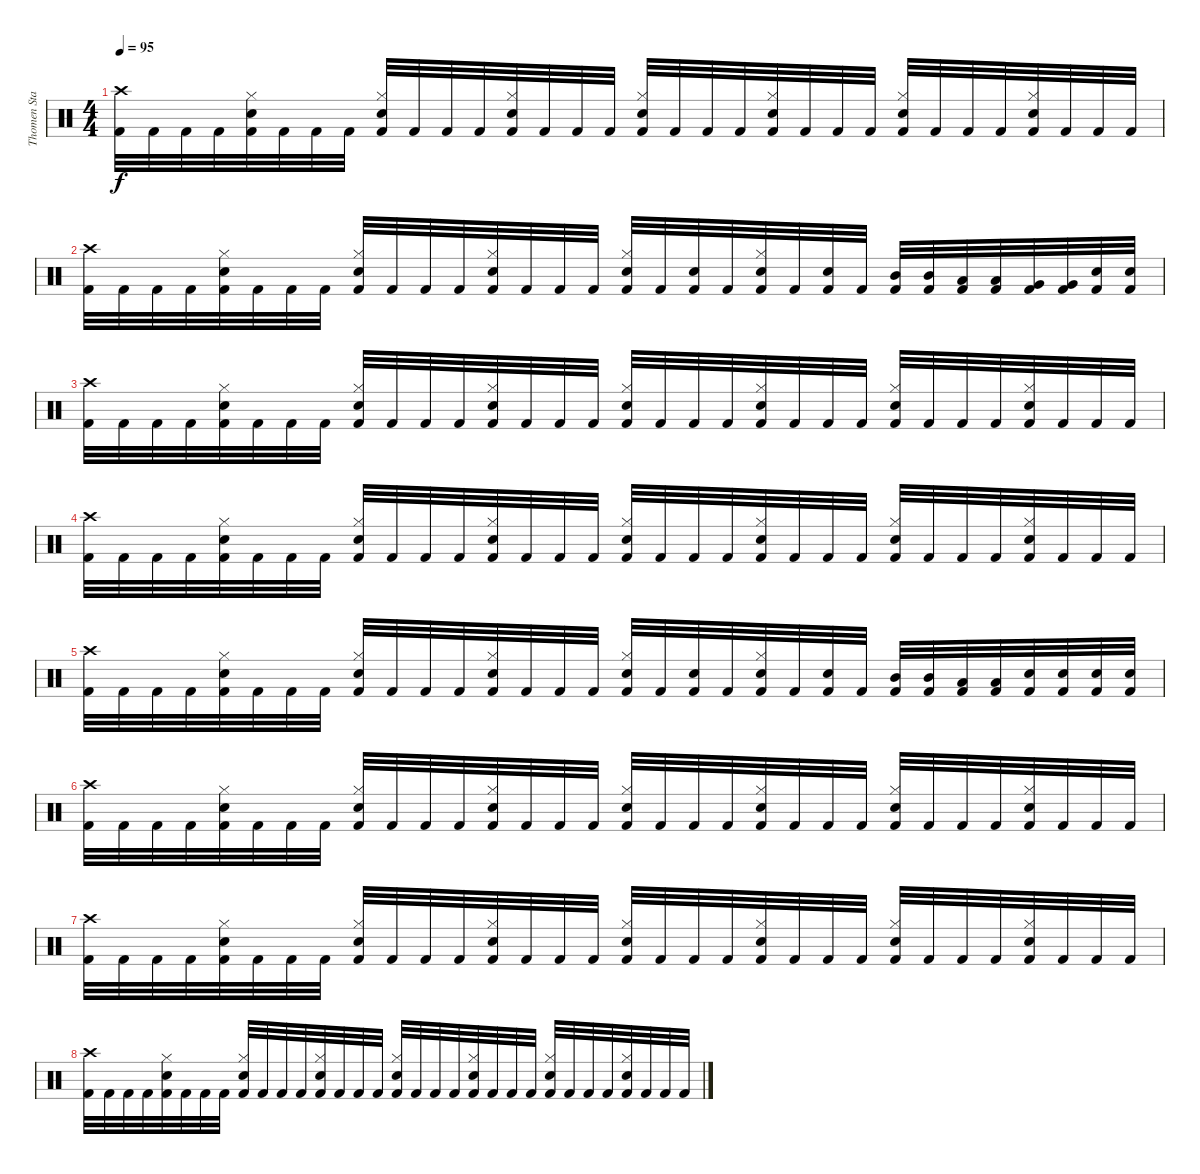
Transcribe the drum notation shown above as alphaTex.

\track ("Thomen Stauch" "Thomen Sta") {instrument percussion}
\staff {score}
\articulation defaults
\ts (4 4)
\tempo 95
\clef neutral
\ks c
("Crash high (hit)" "Kick (hit) 2").32{dy f} "Kick (hit) 2".32 "Kick (hit) 2".32 "Kick (hit) 2".32 ("Hi-Hat (closed)" "Snare (hit) 2" "Kick (hit) 2").32 "Kick (hit) 2".32 "Kick (hit) 2".32 "Kick (hit) 2".32 ("Hi-Hat (closed)" "Snare (hit) 2" "Kick (hit) 2").32 "Kick (hit) 2".32 "Kick (hit) 2".32 "Kick (hit) 2".32 ("Hi-Hat (closed)" "Snare (hit) 2" "Kick (hit) 2").32 "Kick (hit) 2".32 "Kick (hit) 2".32 "Kick (hit) 2".32 ("Hi-Hat (closed)" "Snare (hit) 2" "Kick (hit) 2").32 "Kick (hit) 2".32 "Kick (hit) 2".32 "Kick (hit) 2".32 ("Hi-Hat (closed)" "Snare (hit) 2" "Kick (hit) 2").32 "Kick (hit) 2".32 "Kick (hit) 2".32 "Kick (hit) 2".32 ("Hi-Hat (closed)" "Snare (hit) 2" "Kick (hit) 2").32 "Kick (hit) 2".32 "Kick (hit) 2".32 "Kick (hit) 2".32 ("Hi-Hat (closed)" "Snare (hit) 2" "Kick (hit) 2").32 "Kick (hit) 2".32 "Kick (hit) 2".32 "Kick (hit) 2".32 |
("Crash high (hit)" "Kick (hit) 2").32 "Kick (hit) 2".32 "Kick (hit) 2".32 "Kick (hit) 2".32 ("Hi-Hat (closed)" "Snare (hit) 2" "Kick (hit) 2").32 "Kick (hit) 2".32 "Kick (hit) 2".32 "Kick (hit) 2".32 ("Hi-Hat (closed)" "Snare (hit) 2" "Kick (hit) 2").32 "Kick (hit) 2".32 "Kick (hit) 2".32 "Kick (hit) 2".32 ("Hi-Hat (closed)" "Snare (hit) 2" "Kick (hit) 2").32 "Kick (hit) 2".32 "Kick (hit) 2".32 "Kick (hit) 2".32 ("Hi-Hat (closed)" "Snare (hit) 2" "Kick (hit) 2").32 "Kick (hit) 2".32 ("Snare (hit) 2" "Kick (hit) 2").32 "Kick (hit) 2".32 ("Hi-Hat (closed)" "Snare (hit) 2" "Kick (hit) 2").32 "Kick (hit) 2".32 ("Snare (hit) 2" "Kick (hit) 2").32 "Kick (hit) 2".32 ("Mid Tom (hit)" "Kick (hit) 2").32 ("Mid Tom (hit)" "Kick (hit) 2").32 ("Low Tom (hit)" "Kick (hit) 2").32 ("Low Tom (hit)" "Kick (hit) 2").32 ("Very Low Tom (hit)" "Kick (hit) 2").32 ("Very Low Tom (hit)" "Kick (hit) 2").32 ("Snare (hit) 2" "Kick (hit) 2").32 ("Snare (hit) 2" "Kick (hit) 2").32 |
("Crash high (hit)" "Kick (hit) 2").32 "Kick (hit) 2".32 "Kick (hit) 2".32 "Kick (hit) 2".32 ("Hi-Hat (closed)" "Snare (hit) 2" "Kick (hit) 2").32 "Kick (hit) 2".32 "Kick (hit) 2".32 "Kick (hit) 2".32 ("Hi-Hat (closed)" "Snare (hit) 2" "Kick (hit) 2").32 "Kick (hit) 2".32 "Kick (hit) 2".32 "Kick (hit) 2".32 ("Hi-Hat (closed)" "Snare (hit) 2" "Kick (hit) 2").32 "Kick (hit) 2".32 "Kick (hit) 2".32 "Kick (hit) 2".32 ("Hi-Hat (closed)" "Snare (hit) 2" "Kick (hit) 2").32 "Kick (hit) 2".32 "Kick (hit) 2".32 "Kick (hit) 2".32 ("Hi-Hat (closed)" "Snare (hit) 2" "Kick (hit) 2").32 "Kick (hit) 2".32 "Kick (hit) 2".32 "Kick (hit) 2".32 ("Hi-Hat (closed)" "Snare (hit) 2" "Kick (hit) 2").32 "Kick (hit) 2".32 "Kick (hit) 2".32 "Kick (hit) 2".32 ("Hi-Hat (closed)" "Snare (hit) 2" "Kick (hit) 2").32 "Kick (hit) 2".32 "Kick (hit) 2".32 "Kick (hit) 2".32 |
("Crash high (hit)" "Kick (hit) 2").32 "Kick (hit) 2".32 "Kick (hit) 2".32 "Kick (hit) 2".32 ("Hi-Hat (closed)" "Snare (hit) 2" "Kick (hit) 2").32 "Kick (hit) 2".32 "Kick (hit) 2".32 "Kick (hit) 2".32 ("Hi-Hat (closed)" "Snare (hit) 2" "Kick (hit) 2").32 "Kick (hit) 2".32 "Kick (hit) 2".32 "Kick (hit) 2".32 ("Hi-Hat (closed)" "Snare (hit) 2" "Kick (hit) 2").32 "Kick (hit) 2".32 "Kick (hit) 2".32 "Kick (hit) 2".32 ("Hi-Hat (closed)" "Snare (hit) 2" "Kick (hit) 2").32 "Kick (hit) 2".32 "Kick (hit) 2".32 "Kick (hit) 2".32 ("Hi-Hat (closed)" "Snare (hit) 2" "Kick (hit) 2").32 "Kick (hit) 2".32 "Kick (hit) 2".32 "Kick (hit) 2".32 ("Hi-Hat (closed)" "Snare (hit) 2" "Kick (hit) 2").32 "Kick (hit) 2".32 "Kick (hit) 2".32 "Kick (hit) 2".32 ("Hi-Hat (closed)" "Snare (hit) 2" "Kick (hit) 2").32 "Kick (hit) 2".32 "Kick (hit) 2".32 "Kick (hit) 2".32 |
("Crash high (hit)" "Kick (hit) 2").32 "Kick (hit) 2".32 "Kick (hit) 2".32 "Kick (hit) 2".32 ("Hi-Hat (closed)" "Snare (hit) 2" "Kick (hit) 2").32 "Kick (hit) 2".32 "Kick (hit) 2".32 "Kick (hit) 2".32 ("Hi-Hat (closed)" "Snare (hit) 2" "Kick (hit) 2").32 "Kick (hit) 2".32 "Kick (hit) 2".32 "Kick (hit) 2".32 ("Hi-Hat (closed)" "Snare (hit) 2" "Kick (hit) 2").32 "Kick (hit) 2".32 "Kick (hit) 2".32 "Kick (hit) 2".32 ("Hi-Hat (closed)" "Snare (hit) 2" "Kick (hit) 2").32 "Kick (hit) 2".32 ("Snare (hit) 2" "Kick (hit) 2").32 "Kick (hit) 2".32 ("Hi-Hat (closed)" "Snare (hit) 2" "Kick (hit) 2").32 "Kick (hit) 2".32 ("Snare (hit) 2" "Kick (hit) 2").32 "Kick (hit) 2".32 ("Mid Tom (hit)" "Kick (hit) 2").32 ("Mid Tom (hit)" "Kick (hit) 2").32 ("Low Tom (hit)" "Kick (hit) 2").32 ("Low Tom (hit)" "Kick (hit) 2").32 ("Snare (hit) 2" "Kick (hit) 2").32 ("Snare (hit) 2" "Kick (hit) 2").32 ("Snare (hit) 2" "Kick (hit) 2").32 ("Snare (hit) 2" "Kick (hit) 2").32 |
("Crash high (hit)" "Kick (hit) 2").32 "Kick (hit) 2".32 "Kick (hit) 2".32 "Kick (hit) 2".32 ("Hi-Hat (closed)" "Snare (hit) 2" "Kick (hit) 2").32 "Kick (hit) 2".32 "Kick (hit) 2".32 "Kick (hit) 2".32 ("Hi-Hat (closed)" "Snare (hit) 2" "Kick (hit) 2").32 "Kick (hit) 2".32 "Kick (hit) 2".32 "Kick (hit) 2".32 ("Hi-Hat (closed)" "Snare (hit) 2" "Kick (hit) 2").32 "Kick (hit) 2".32 "Kick (hit) 2".32 "Kick (hit) 2".32 ("Hi-Hat (closed)" "Snare (hit) 2" "Kick (hit) 2").32 "Kick (hit) 2".32 "Kick (hit) 2".32 "Kick (hit) 2".32 ("Hi-Hat (closed)" "Snare (hit) 2" "Kick (hit) 2").32 "Kick (hit) 2".32 "Kick (hit) 2".32 "Kick (hit) 2".32 ("Hi-Hat (closed)" "Snare (hit) 2" "Kick (hit) 2").32 "Kick (hit) 2".32 "Kick (hit) 2".32 "Kick (hit) 2".32 ("Hi-Hat (closed)" "Snare (hit) 2" "Kick (hit) 2").32 "Kick (hit) 2".32 "Kick (hit) 2".32 "Kick (hit) 2".32 |
("Crash high (hit)" "Kick (hit) 2").32 "Kick (hit) 2".32 "Kick (hit) 2".32 "Kick (hit) 2".32 ("Hi-Hat (closed)" "Snare (hit) 2" "Kick (hit) 2").32 "Kick (hit) 2".32 "Kick (hit) 2".32 "Kick (hit) 2".32 ("Hi-Hat (closed)" "Snare (hit) 2" "Kick (hit) 2").32 "Kick (hit) 2".32 "Kick (hit) 2".32 "Kick (hit) 2".32 ("Hi-Hat (closed)" "Snare (hit) 2" "Kick (hit) 2").32 "Kick (hit) 2".32 "Kick (hit) 2".32 "Kick (hit) 2".32 ("Hi-Hat (closed)" "Snare (hit) 2" "Kick (hit) 2").32 "Kick (hit) 2".32 "Kick (hit) 2".32 "Kick (hit) 2".32 ("Hi-Hat (closed)" "Snare (hit) 2" "Kick (hit) 2").32 "Kick (hit) 2".32 "Kick (hit) 2".32 "Kick (hit) 2".32 ("Hi-Hat (closed)" "Snare (hit) 2" "Kick (hit) 2").32 "Kick (hit) 2".32 "Kick (hit) 2".32 "Kick (hit) 2".32 ("Hi-Hat (closed)" "Snare (hit) 2" "Kick (hit) 2").32 "Kick (hit) 2".32 "Kick (hit) 2".32 "Kick (hit) 2".32 |
("Crash high (hit)" "Kick (hit) 2").32 "Kick (hit) 2".32 "Kick (hit) 2".32 "Kick (hit) 2".32 ("Hi-Hat (closed)" "Snare (hit) 2" "Kick (hit) 2").32 "Kick (hit) 2".32 "Kick (hit) 2".32 "Kick (hit) 2".32 ("Hi-Hat (closed)" "Snare (hit) 2" "Kick (hit) 2").32 "Kick (hit) 2".32 "Kick (hit) 2".32 "Kick (hit) 2".32 ("Hi-Hat (closed)" "Snare (hit) 2" "Kick (hit) 2").32 "Kick (hit) 2".32 "Kick (hit) 2".32 "Kick (hit) 2".32 ("Hi-Hat (closed)" "Snare (hit) 2" "Kick (hit) 2").32 "Kick (hit) 2".32 "Kick (hit) 2".32 "Kick (hit) 2".32 ("Hi-Hat (closed)" "Snare (hit) 2" "Kick (hit) 2").32 "Kick (hit) 2".32 "Kick (hit) 2".32 "Kick (hit) 2".32 ("Hi-Hat (closed)" "Snare (hit) 2" "Kick (hit) 2").32 "Kick (hit) 2".32 "Kick (hit) 2".32 "Kick (hit) 2".32 ("Hi-Hat (closed)" "Snare (hit) 2" "Kick (hit) 2").32 "Kick (hit) 2".32 "Kick (hit) 2".32 "Kick (hit) 2".32
